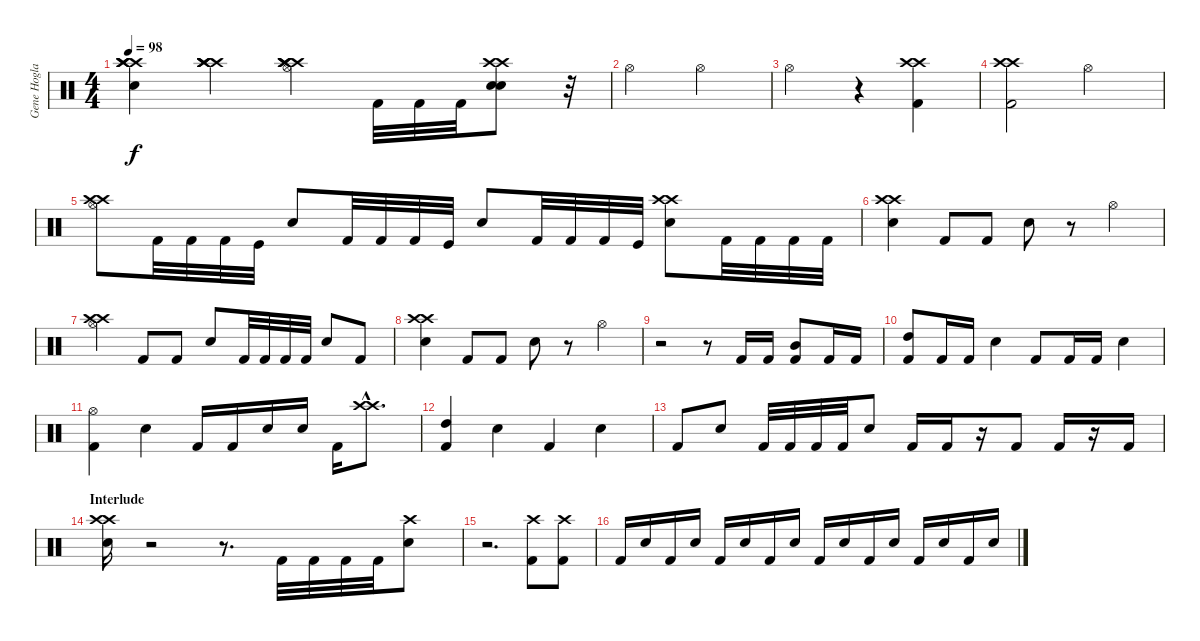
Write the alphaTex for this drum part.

\track ("Gene Hoglan" "Gene Hogla") {instrument percussion}
\staff {score}
\articulation defaults
\ts (4 4)
\tempo 98
\clef neutral
\ks c
("Crash high (hit)" "Crash high (hit)" "Crash high (hit)" "Crash high (hit)" "Snare (hit)").4{dy f} ("Crash high (hit)" "Crash high (hit)" "Crash high (hit)" "Crash high (hit)").4 ("Crash high (hit)" "Crash high (hit)" "Crash high (hit)" "Crash high (hit)" "Hi-Hat (open)").4 "Kick (hit) 2".32 "Kick (hit) 2".32 "Kick (hit) 2".32 ("Electric Snare (hit)" "Crash high (hit)" "Crash high (hit)" "Electric Snare (hit)").8 r.32 |
"Hi-Hat (open)".2 "Hi-Hat (open)".2 |
"Hi-Hat (open)".2 r.4 ("Crash high (hit)" "Kick (hit) 2" "Crash high (hit)").4 |
("Crash high (hit)" "Kick (hit) 2" "Crash high (hit)").2 "Hi-Hat (open)".2 |
("Crash high (hit)" "Crash high (hit)" "Hi-Hat (open)").8 "Kick (hit) 2".32 "Kick (hit) 2".32 "Kick (hit) 2".32 "Kick (hit)".32 "Electric Snare (hit)".8 "Kick (hit) 2".32 "Kick (hit) 2".32 "Kick (hit) 2".32 "Kick (hit)".32 "Snare (hit) 2".8 "Kick (hit) 2".32 "Kick (hit) 2".32 "Kick (hit) 2".32 "Kick (hit)".32 ("Crash high (hit)" "Crash high (hit)" "Snare (hit) 2").8 "Kick (hit) 2".32 "Kick (hit) 2".32 "Kick (hit) 2".32 "Kick (hit) 2".32 |
("Crash high (hit)" "Crash high (hit)" "Electric Snare (hit)").4 "Kick (hit) 2".8 "Kick (hit) 2".8 "Electric Snare (hit)".8 r.8 "Hi-Hat (open)".4 |
("Crash high (hit)" "Crash high (hit)" "Hi-Hat (open)").4 "Kick (hit) 2".8 "Kick (hit) 2".8 "Electric Snare (hit)".8 "Kick (hit) 2".32 "Kick (hit) 2".32 "Kick (hit) 2".32 "Kick (hit) 2".32 "Electric Snare (hit)".8 "Kick (hit) 2".8 |
("Crash high (hit)" "Crash high (hit)" "Electric Snare (hit)").4 "Kick (hit) 2".8 "Kick (hit) 2".8 "Electric Snare (hit)".8 r.8 "Hi-Hat (open)".4 |
r.2 r.8 "Kick (hit) 2".16 "Kick (hit) 2".16 ("Mid Tom (hit)" "Kick (hit) 2").8 "Kick (hit) 2".16 "Kick (hit) 2".16 |
("High Tom (hit)" "Kick (hit) 2").8 "Kick (hit) 2".16 "Kick (hit) 2".16 "Electric Snare (hit)".4 "Kick (hit) 2".8 "Kick (hit) 2".16 "Kick (hit) 2".16 "Electric Snare (hit)".4 |
("Hi-Hat (open)" "Kick (hit) 2").4 "Electric Snare (hit)".4 "Kick (hit) 2".16 "Kick (hit) 2".16 "Electric Snare (hit)".16 "Electric Snare (hit)".16 "Kick (hit) 2".16 ("Crash high (hit)"{hac} "Crash high (hit)"{hac}).8{d} |
("High Tom (hit)" "Kick (hit) 2").4 "Electric Snare (hit)".4 "Kick (hit) 2".4 "Electric Snare (hit)".4 |
"Kick (hit) 2".8 "Electric Snare (hit)".8 "Kick (hit) 2".32 "Kick (hit) 2".32 "Kick (hit) 2".32 "Kick (hit) 2".32 "Electric Snare (hit)".8 "Kick (hit) 2".16 "Kick (hit) 2".16 r.16 "Kick (hit) 2".8 "Kick (hit) 2".16 r.16 "Kick (hit) 2".16 |
\section ("" "Interlude")
("Crash high (hit)" "Crash high (hit)" "Electric Snare (hit)").16 r.2 r.8{d} "Kick (hit) 2".32 "Kick (hit) 2".32 "Kick (hit) 2".32 "Kick (hit) 2".32 ("Electric Snare (hit)" "Crash high (hit)").8 |
r.2{d} ("Crash high (hit)" "Kick (hit) 2").8 ("Crash high (hit)" "Kick (hit) 2").8 |
"Kick (hit) 2".16 "Electric Snare (hit)".16 "Kick (hit) 2".16 "Electric Snare (hit)".16 "Kick (hit) 2".16 "Electric Snare (hit)".16 "Kick (hit) 2".16 "Electric Snare (hit)".16 "Kick (hit) 2".16 "Electric Snare (hit)".16 "Kick (hit) 2".16 "Electric Snare (hit)".16 "Kick (hit) 2".16 "Electric Snare (hit)".16 "Kick (hit) 2".16 "Electric Snare (hit)".16
